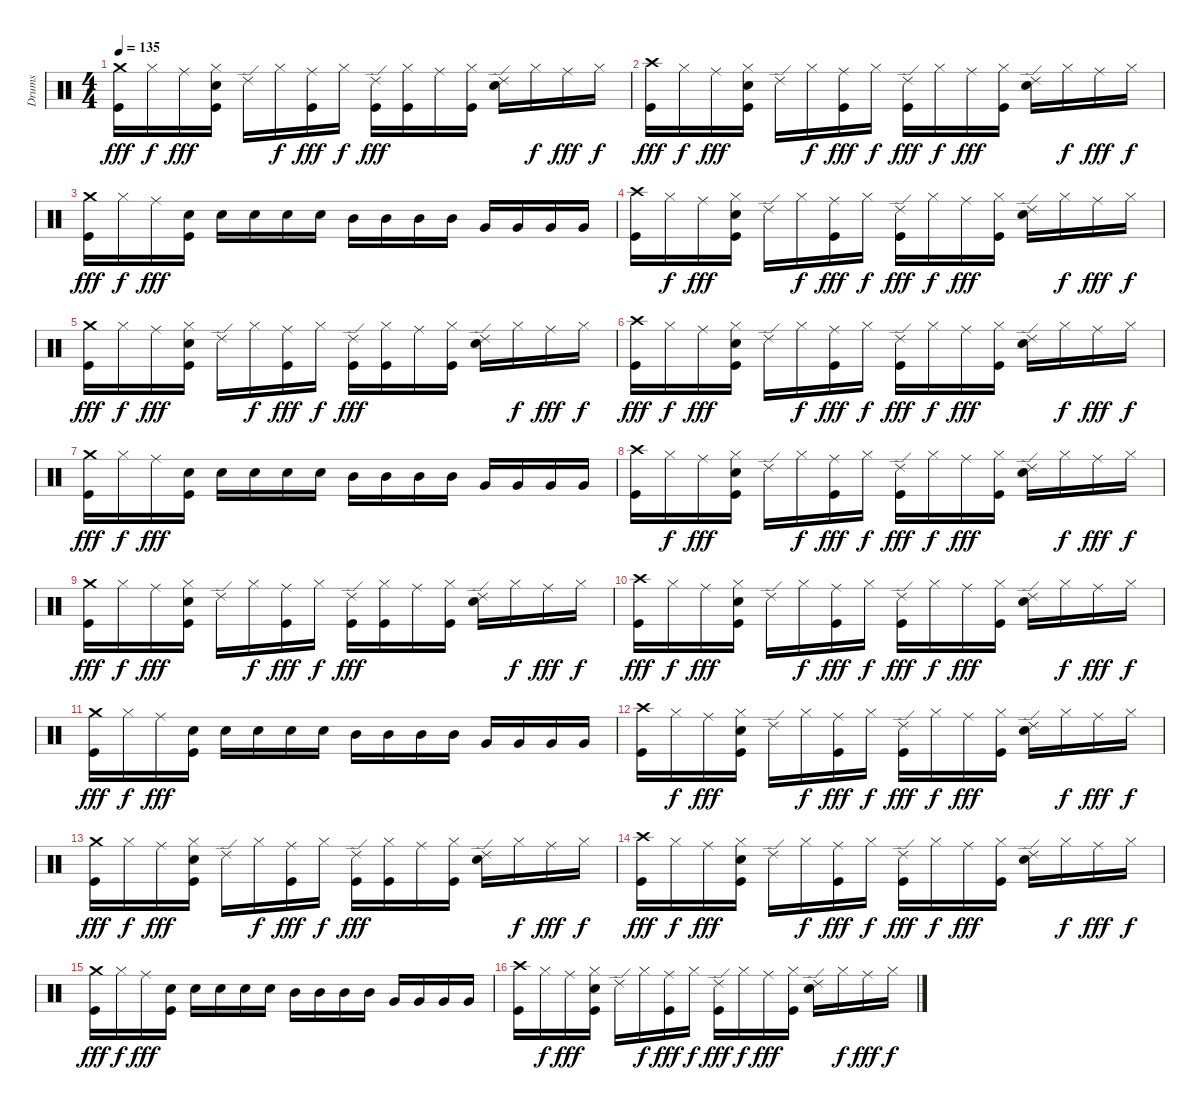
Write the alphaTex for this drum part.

\track ("Drums" "Drums") {instrument percussion}
\staff {score}
\articulation defaults
\ts (4 4)
\tempo 135
\clef neutral
\ks c
("Crash medium (hit)" "Kick (hit)").16{dy fff} "Hi-Hat (closed)".16{dy f} "Ride (middle)".16{dy fff} ("Hi-Hat (closed)" "Snare (hit) 2" "Kick (hit)").16 "Ride (edge) 2".16 "Hi-Hat (closed)".16{dy f} ("Ride (middle)" "Kick (hit)").16{dy fff} "Hi-Hat (closed)".16{dy f} ("Ride (edge) 2" "Kick (hit)").16{dy fff} ("Hi-Hat (closed)" "Kick (hit)").16 "Ride (middle)".16 ("Hi-Hat (closed)" "Kick (hit)").16 ("Ride (edge) 2" "Snare (hit) 2").16 "Hi-Hat (closed)".16{dy f} "Ride (middle)".16{dy fff} "Hi-Hat (closed)".16{dy f} |
("Crash high (hit)" "Kick (hit)").16{dy fff} "Hi-Hat (closed)".16{dy f} "Ride (middle)".16{dy fff} ("Hi-Hat (closed)" "Snare (hit) 2" "Kick (hit)").16 "Ride (edge) 2".16 "Hi-Hat (closed)".16{dy f} ("Ride (middle)" "Kick (hit)").16{dy fff} "Hi-Hat (closed)".16{dy f} ("Ride (edge) 2" "Kick (hit)").16{dy fff} "Hi-Hat (closed)".16{dy f} "Ride (middle)".16{dy fff} ("Hi-Hat (closed)" "Kick (hit)").16 ("Ride (edge) 2" "Snare (hit) 2").16 "Hi-Hat (closed)".16{dy f} "Ride (middle)".16{dy fff} "Hi-Hat (closed)".16{dy f} |
("Crash medium (hit)" "Kick (hit)").16{dy fff} "Hi-Hat (closed)".16{dy f} "Ride (middle)".16{dy fff volume 10} ("Snare (hit) 2" "Kick (hit)").16{volume 14} "Snare (hit) 2".16 "Snare (hit) 2".16 "Snare (hit) 2".16 "Snare (hit) 2".16 "Mid Tom (hit)".16 "Mid Tom (hit)".16 "Mid Tom (hit)".16 "Mid Tom (hit)".16 "Very Low Tom (hit)".16 "Very Low Tom (hit)".16 "Very Low Tom (hit)".16 "Very Low Tom (hit)".16 |
("Crash high (hit)" "Kick (hit)").16 "Hi-Hat (closed)".16{dy f} "Ride (middle)".16{dy fff} ("Hi-Hat (closed)" "Snare (hit) 2" "Kick (hit)").16 "Ride (edge) 2".16 "Hi-Hat (closed)".16{dy f} ("Ride (middle)" "Kick (hit)").16{dy fff} "Hi-Hat (closed)".16{dy f} ("Ride (edge) 2" "Kick (hit)").16{dy fff} "Hi-Hat (closed)".16{dy f} "Ride (middle)".16{dy fff} ("Hi-Hat (closed)" "Kick (hit)").16 ("Ride (edge) 2" "Snare (hit) 2").16 "Hi-Hat (closed)".16{dy f} "Ride (middle)".16{dy fff} "Hi-Hat (closed)".16{dy f} |
("Crash medium (hit)" "Kick (hit)").16{dy fff} "Hi-Hat (closed)".16{dy f} "Ride (middle)".16{dy fff} ("Hi-Hat (closed)" "Snare (hit) 2" "Kick (hit)").16 "Ride (edge) 2".16 "Hi-Hat (closed)".16{dy f} ("Ride (middle)" "Kick (hit)").16{dy fff} "Hi-Hat (closed)".16{dy f} ("Ride (edge) 2" "Kick (hit)").16{dy fff} ("Hi-Hat (closed)" "Kick (hit)").16 "Ride (middle)".16 ("Hi-Hat (closed)" "Kick (hit)").16 ("Ride (edge) 2" "Snare (hit) 2").16 "Hi-Hat (closed)".16{dy f} "Ride (middle)".16{dy fff} "Hi-Hat (closed)".16{dy f} |
("Crash high (hit)" "Kick (hit)").16{dy fff} "Hi-Hat (closed)".16{dy f} "Ride (middle)".16{dy fff} ("Hi-Hat (closed)" "Snare (hit) 2" "Kick (hit)").16 "Ride (edge) 2".16 "Hi-Hat (closed)".16{dy f} ("Ride (middle)" "Kick (hit)").16{dy fff} "Hi-Hat (closed)".16{dy f} ("Ride (edge) 2" "Kick (hit)").16{dy fff} "Hi-Hat (closed)".16{dy f} "Ride (middle)".16{dy fff} ("Hi-Hat (closed)" "Kick (hit)").16 ("Ride (edge) 2" "Snare (hit) 2").16 "Hi-Hat (closed)".16{dy f} "Ride (middle)".16{dy fff} "Hi-Hat (closed)".16{dy f} |
("Crash medium (hit)" "Kick (hit)").16{dy fff} "Hi-Hat (closed)".16{dy f} "Ride (middle)".16{dy fff volume 10} ("Snare (hit) 2" "Kick (hit)").16{volume 14} "Snare (hit) 2".16 "Snare (hit) 2".16 "Snare (hit) 2".16 "Snare (hit) 2".16 "Mid Tom (hit)".16 "Mid Tom (hit)".16 "Mid Tom (hit)".16 "Mid Tom (hit)".16 "Very Low Tom (hit)".16 "Very Low Tom (hit)".16 "Very Low Tom (hit)".16 "Very Low Tom (hit)".16 |
("Crash high (hit)" "Kick (hit)").16{volume 8} "Hi-Hat (closed)".16{dy f} "Ride (middle)".16{dy fff} ("Hi-Hat (closed)" "Snare (hit) 2" "Kick (hit)").16 "Ride (edge) 2".16 "Hi-Hat (closed)".16{dy f} ("Ride (middle)" "Kick (hit)").16{dy fff} "Hi-Hat (closed)".16{dy f} ("Ride (edge) 2" "Kick (hit)").16{dy fff} "Hi-Hat (closed)".16{dy f} "Ride (middle)".16{dy fff} ("Hi-Hat (closed)" "Kick (hit)").16 ("Ride (edge) 2" "Snare (hit) 2").16 "Hi-Hat (closed)".16{dy f} "Ride (middle)".16{dy fff} "Hi-Hat (closed)".16{dy f} |
("Crash medium (hit)" "Kick (hit)").16{dy fff} "Hi-Hat (closed)".16{dy f} "Ride (middle)".16{dy fff} ("Hi-Hat (closed)" "Snare (hit) 2" "Kick (hit)").16 "Ride (edge) 2".16 "Hi-Hat (closed)".16{dy f} ("Ride (middle)" "Kick (hit)").16{dy fff} "Hi-Hat (closed)".16{dy f} ("Ride (edge) 2" "Kick (hit)").16{dy fff} ("Hi-Hat (closed)" "Kick (hit)").16 "Ride (middle)".16 ("Hi-Hat (closed)" "Kick (hit)").16 ("Ride (edge) 2" "Snare (hit) 2").16 "Hi-Hat (closed)".16{dy f} "Ride (middle)".16{dy fff} "Hi-Hat (closed)".16{dy f} |
("Crash high (hit)" "Kick (hit)").16{dy fff} "Hi-Hat (closed)".16{dy f} "Ride (middle)".16{dy fff} ("Hi-Hat (closed)" "Snare (hit) 2" "Kick (hit)").16 "Ride (edge) 2".16 "Hi-Hat (closed)".16{dy f} ("Ride (middle)" "Kick (hit)").16{dy fff} "Hi-Hat (closed)".16{dy f} ("Ride (edge) 2" "Kick (hit)").16{dy fff} "Hi-Hat (closed)".16{dy f} "Ride (middle)".16{dy fff} ("Hi-Hat (closed)" "Kick (hit)").16 ("Ride (edge) 2" "Snare (hit) 2").16 "Hi-Hat (closed)".16{dy f} "Ride (middle)".16{dy fff} "Hi-Hat (closed)".16{dy f} |
("Crash medium (hit)" "Kick (hit)").16{dy fff} "Hi-Hat (closed)".16{dy f} "Ride (middle)".16{dy fff} ("Snare (hit) 2" "Kick (hit)").16 "Snare (hit) 2".16 "Snare (hit) 2".16 "Snare (hit) 2".16 "Snare (hit) 2".16 "Mid Tom (hit)".16 "Mid Tom (hit)".16 "Mid Tom (hit)".16 "Mid Tom (hit)".16 "Very Low Tom (hit)".16 "Very Low Tom (hit)".16 "Very Low Tom (hit)".16 "Very Low Tom (hit)".16 |
("Crash high (hit)" "Kick (hit)").16{volume 4} "Hi-Hat (closed)".16{dy f} "Ride (middle)".16{dy fff} ("Hi-Hat (closed)" "Snare (hit) 2" "Kick (hit)").16 "Ride (edge) 2".16 "Hi-Hat (closed)".16{dy f} ("Ride (middle)" "Kick (hit)").16{dy fff} "Hi-Hat (closed)".16{dy f} ("Ride (edge) 2" "Kick (hit)").16{dy fff} "Hi-Hat (closed)".16{dy f} "Ride (middle)".16{dy fff} ("Hi-Hat (closed)" "Kick (hit)").16 ("Ride (edge) 2" "Snare (hit) 2").16 "Hi-Hat (closed)".16{dy f} "Ride (middle)".16{dy fff} "Hi-Hat (closed)".16{dy f} |
("Crash medium (hit)" "Kick (hit)").16{dy fff} "Hi-Hat (closed)".16{dy f} "Ride (middle)".16{dy fff} ("Hi-Hat (closed)" "Snare (hit) 2" "Kick (hit)").16 "Ride (edge) 2".16 "Hi-Hat (closed)".16{dy f} ("Ride (middle)" "Kick (hit)").16{dy fff} "Hi-Hat (closed)".16{dy f} ("Ride (edge) 2" "Kick (hit)").16{dy fff} ("Hi-Hat (closed)" "Kick (hit)").16 "Ride (middle)".16 ("Hi-Hat (closed)" "Kick (hit)").16 ("Ride (edge) 2" "Snare (hit) 2").16 "Hi-Hat (closed)".16{dy f} "Ride (middle)".16{dy fff} "Hi-Hat (closed)".16{dy f} |
("Crash high (hit)" "Kick (hit)").16{dy fff} "Hi-Hat (closed)".16{dy f} "Ride (middle)".16{dy fff} ("Hi-Hat (closed)" "Snare (hit) 2" "Kick (hit)").16 "Ride (edge) 2".16 "Hi-Hat (closed)".16{dy f} ("Ride (middle)" "Kick (hit)").16{dy fff} "Hi-Hat (closed)".16{dy f} ("Ride (edge) 2" "Kick (hit)").16{dy fff} "Hi-Hat (closed)".16{dy f} "Ride (middle)".16{dy fff} ("Hi-Hat (closed)" "Kick (hit)").16 ("Ride (edge) 2" "Snare (hit) 2").16 "Hi-Hat (closed)".16{dy f} "Ride (middle)".16{dy fff} "Hi-Hat (closed)".16{dy f} |
("Crash medium (hit)" "Kick (hit)").16{dy fff} "Hi-Hat (closed)".16{dy f} "Ride (middle)".16{dy fff} ("Snare (hit) 2" "Kick (hit)").16 "Snare (hit) 2".16 "Snare (hit) 2".16 "Snare (hit) 2".16 "Snare (hit) 2".16 "Mid Tom (hit)".16 "Mid Tom (hit)".16 "Mid Tom (hit)".16 "Mid Tom (hit)".16 "Very Low Tom (hit)".16 "Very Low Tom (hit)".16 "Very Low Tom (hit)".16 "Very Low Tom (hit)".16 |
("Crash high (hit)" "Kick (hit)").16{volume 0} "Hi-Hat (closed)".16{dy f} "Ride (middle)".16{dy fff} ("Hi-Hat (closed)" "Snare (hit) 2" "Kick (hit)").16 "Ride (edge) 2".16 "Hi-Hat (closed)".16{dy f} ("Ride (middle)" "Kick (hit)").16{dy fff} "Hi-Hat (closed)".16{dy f} ("Ride (edge) 2" "Kick (hit)").16{dy fff} "Hi-Hat (closed)".16{dy f} "Ride (middle)".16{dy fff} ("Hi-Hat (closed)" "Kick (hit)").16 ("Ride (edge) 2" "Snare (hit) 2").16 "Hi-Hat (closed)".16{dy f} "Ride (middle)".16{dy fff} "Hi-Hat (closed)".16{dy f}
